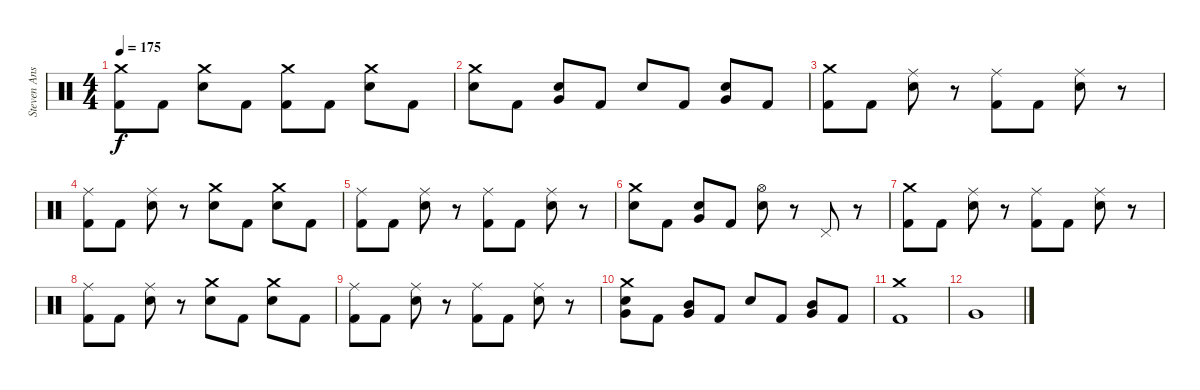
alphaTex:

\track ("Steven Ansell" "Steven Ans") {instrument percussion}
\staff {score}
\articulation defaults
\ts (4 4)
\tempo 175
\clef neutral
\ks c
("Crash medium (hit)" "Kick (hit) 2").8{dy f} "Kick (hit) 2".8 ("Crash medium (hit)" "Electric Snare (hit)").8 "Kick (hit) 2".8 ("Crash medium (hit)" "Kick (hit) 2").8 "Kick (hit) 2".8 ("Crash medium (hit)" "Electric Snare (hit)").8 "Kick (hit) 2".8 |
("Crash medium (hit)" "Electric Snare (hit)").8 "Kick (hit) 2".8 ("Electric Snare (hit)" "Very Low Tom (hit)").8 "Kick (hit) 2".8 "Electric Snare (hit)".8 "Kick (hit) 2".8 ("Electric Snare (hit)" "Very Low Tom (hit)").8 "Kick (hit) 2".8 |
("Crash medium (hit)" "Kick (hit) 2").8 "Kick (hit) 2".8 ("Ride (middle)" "Electric Snare (hit)").8 r.8 ("Ride (middle)" "Kick (hit) 2").8 "Kick (hit) 2".8 ("Ride (middle)" "Electric Snare (hit)").8 r.8 |
("Ride (middle)" "Kick (hit) 2").8 "Kick (hit) 2".8 ("Ride (middle)" "Electric Snare (hit)").8 r.8 ("Crash medium (hit)" "Electric Snare (hit)").8 "Kick (hit) 2".8 ("Crash medium (hit)" "Electric Snare (hit)").8 "Kick (hit) 2".8 |
("Ride (middle)" "Kick (hit) 2").8 "Kick (hit) 2".8 ("Ride (middle)" "Electric Snare (hit)").8 r.8 ("Ride (middle)" "Kick (hit) 2").8 "Kick (hit) 2".8 ("Ride (middle)" "Electric Snare (hit)").8 r.8 |
("Crash medium (hit)" "Electric Snare (hit)").8 "Kick (hit) 2".8 ("Electric Snare (hit)" "Very Low Tom (hit)").8 "Kick (hit) 2".8 ("Hi-Hat (open)" "Electric Snare (hit)").8 r.8 "Pedal Hi-Hat (hit)".8 r.8 |
("Crash medium (hit)" "Kick (hit) 2").8 "Kick (hit) 2".8 ("Ride (middle)" "Electric Snare (hit)").8 r.8 ("Ride (middle)" "Kick (hit) 2").8 "Kick (hit) 2".8 ("Ride (middle)" "Electric Snare (hit)").8 r.8 |
("Ride (middle)" "Kick (hit) 2").8 "Kick (hit) 2".8 ("Ride (middle)" "Electric Snare (hit)").8 r.8 ("Crash medium (hit)" "Electric Snare (hit)").8 "Kick (hit) 2".8 ("Crash medium (hit)" "Electric Snare (hit)").8 "Kick (hit) 2".8 |
("Ride (middle)" "Kick (hit) 2").8 "Kick (hit) 2".8 ("Ride (middle)" "Electric Snare (hit)").8 r.8 ("Ride (middle)" "Kick (hit) 2").8 "Kick (hit) 2".8 ("Ride (middle)" "Electric Snare (hit)").8 r.8 |
("Crash medium (hit)" "Electric Snare (hit)" "Very Low Tom (hit)").8 "Kick (hit) 2".8 ("Mid Tom (hit)" "Very Low Tom (hit)").8 "Kick (hit) 2".8 "Electric Snare (hit)".8 "Kick (hit) 2".8 ("Mid Tom (hit)" "Very Low Tom (hit)").8 "Kick (hit) 2".8 |
("Crash medium (hit)" "Kick (hit) 2").1 |
"Very Low Tom (hit)".1
